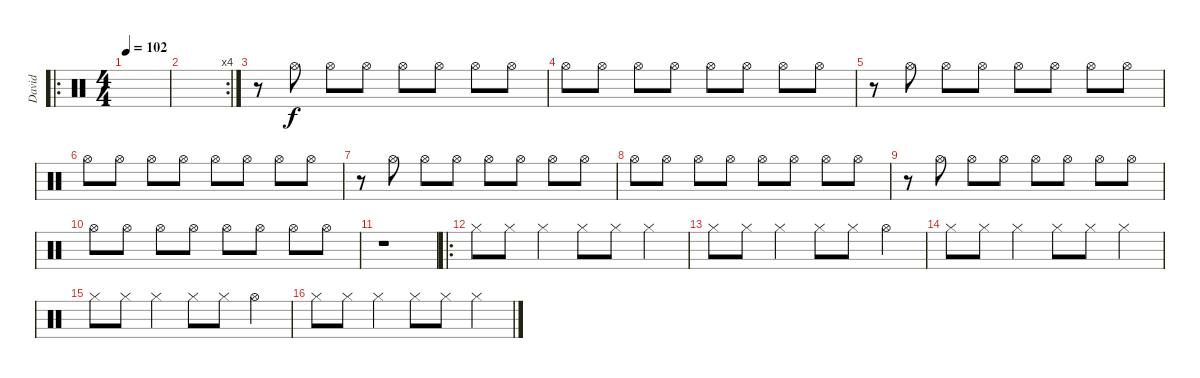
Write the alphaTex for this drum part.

\track ("David" "David") {instrument percussion}
\staff {score}
\articulation defaults
\ro
\ts (4 4)
\tempo 102
\clef neutral
\ks c
|
\rc 4
|
r.8 "Hi-Hat (open)".8 "Hi-Hat (open)".8 "Hi-Hat (open)".8 "Hi-Hat (open)".8 "Hi-Hat (open)".8 "Hi-Hat (open)".8 "Hi-Hat (open)".8 |
"Hi-Hat (open)".8 "Hi-Hat (open)".8 "Hi-Hat (open)".8 "Hi-Hat (open)".8 "Hi-Hat (open)".8 "Hi-Hat (open)".8 "Hi-Hat (open)".8 "Hi-Hat (open)".8 |
r.8 "Hi-Hat (open)".8 "Hi-Hat (open)".8 "Hi-Hat (open)".8 "Hi-Hat (open)".8 "Hi-Hat (open)".8 "Hi-Hat (open)".8 "Hi-Hat (open)".8 |
"Hi-Hat (open)".8 "Hi-Hat (open)".8 "Hi-Hat (open)".8 "Hi-Hat (open)".8 "Hi-Hat (open)".8 "Hi-Hat (open)".8 "Hi-Hat (open)".8 "Hi-Hat (open)".8 |
r.8 "Hi-Hat (open)".8 "Hi-Hat (open)".8 "Hi-Hat (open)".8 "Hi-Hat (open)".8 "Hi-Hat (open)".8 "Hi-Hat (open)".8 "Hi-Hat (open)".8 |
"Hi-Hat (open)".8 "Hi-Hat (open)".8 "Hi-Hat (open)".8 "Hi-Hat (open)".8 "Hi-Hat (open)".8 "Hi-Hat (open)".8 "Hi-Hat (open)".8 "Hi-Hat (open)".8 |
r.8 "Hi-Hat (open)".8 "Hi-Hat (open)".8 "Hi-Hat (open)".8 "Hi-Hat (open)".8 "Hi-Hat (open)".8 "Hi-Hat (open)".8 "Hi-Hat (open)".8 |
"Hi-Hat (open)".8 "Hi-Hat (open)".8 "Hi-Hat (open)".8 "Hi-Hat (open)".8 "Hi-Hat (open)".8 "Hi-Hat (open)".8 "Hi-Hat (open)".8 "Hi-Hat (open)".8 |
r.1 |
\ro "Hi-Hat (closed)".8 "Hi-Hat (closed)".8 "Hi-Hat (closed)".4 "Hi-Hat (closed)".8 "Hi-Hat (closed)".8 "Hi-Hat (closed)".4
|
"Hi-Hat (closed)".8 "Hi-Hat (closed)".8 "Hi-Hat (closed)".4 "Hi-Hat (closed)".8 "Hi-Hat (closed)".8 "Hi-Hat (open)".4 |
"Hi-Hat (closed)".8 "Hi-Hat (closed)".8 "Hi-Hat (closed)".4 "Hi-Hat (closed)".8 "Hi-Hat (closed)".8 "Hi-Hat (closed)".4 |
"Hi-Hat (closed)".8 "Hi-Hat (closed)".8 "Hi-Hat (closed)".4 "Hi-Hat (closed)".8 "Hi-Hat (closed)".8 "Hi-Hat (open)".4 |
"Hi-Hat (closed)".8 "Hi-Hat (closed)".8 "Hi-Hat (closed)".4 "Hi-Hat (closed)".8 "Hi-Hat (closed)".8 "Hi-Hat (closed)".4
